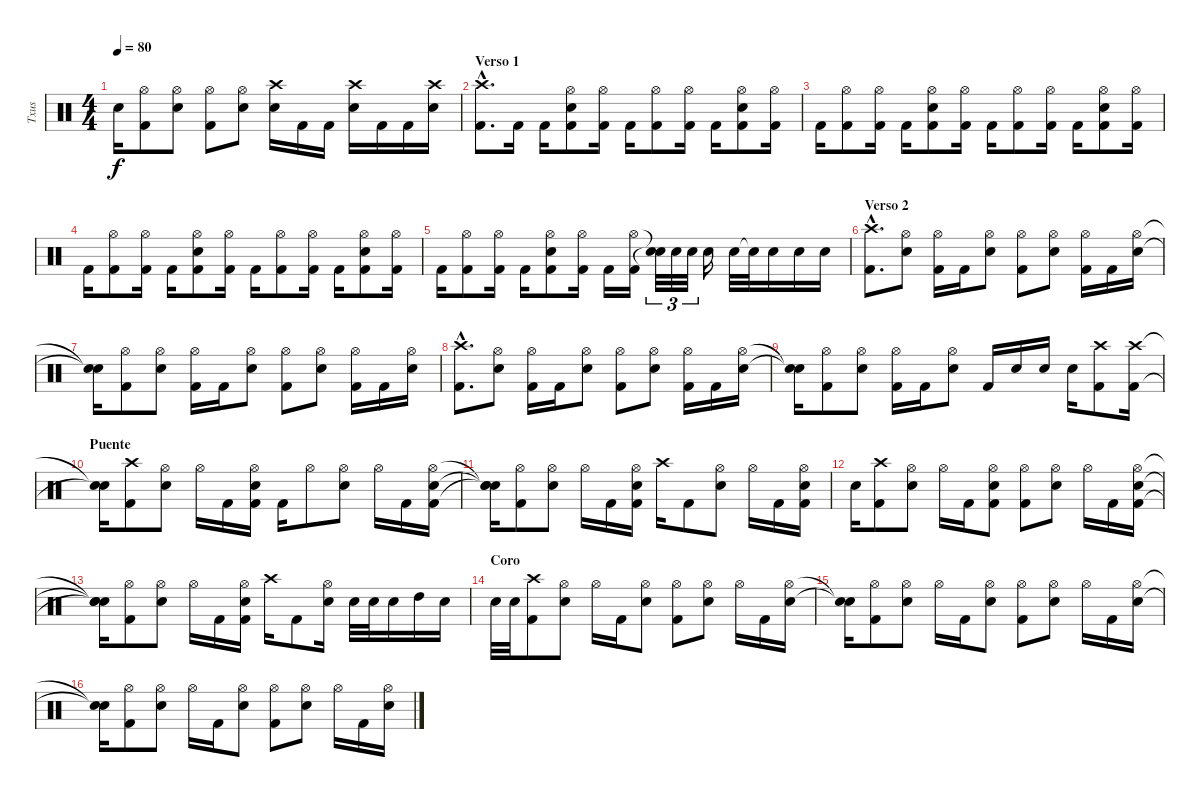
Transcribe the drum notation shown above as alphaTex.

\track ("Txus" "Txus") {instrument percussion}
\staff {score}
\articulation defaults
\ts (4 4)
\tempo 80
\clef neutral
\ks c "Snare (hit)"{t}.16{dy f}
("Hi-Hat (open)" "Kick (hit) 2").8 ("Hi-Hat (open)" "Electric Snare (hit)").8 ("Hi-Hat (open)" "Kick (hit) 2").8 ("Hi-Hat (open)" "Electric Snare (hit)").8 ("Crash high (hit)" "Electric Snare (hit)").16 "Kick (hit) 2".16 "Kick (hit) 2".16 ("Electric Snare (hit)" "Crash high (hit)").16 "Kick (hit) 2".16 "Kick (hit) 2".16 ("Electric Snare (hit)" "Crash high (hit)").16 |
\section ("" "Verso 1")
("Kick (hit) 2"{hac} "Crash high (hit)"{hac}).8{d} "Kick (hit) 2".16 "Kick (hit) 2".16 ("Kick (hit) 2" "Hi-Hat (open)" "Electric Snare (hit)").8 ("Kick (hit) 2" "Hi-Hat (open)").16 "Kick (hit) 2".16 ("Kick (hit) 2" "Hi-Hat (open)").8 ("Kick (hit) 2" "Hi-Hat (open)").16 "Kick (hit) 2".16 ("Kick (hit) 2" "Hi-Hat (open)" "Electric Snare (hit)").8 ("Kick (hit) 2" "Hi-Hat (open)").16 |
"Kick (hit) 2".16 ("Kick (hit) 2" "Hi-Hat (open)").8 ("Kick (hit) 2" "Hi-Hat (open)").16 "Kick (hit) 2".16 ("Kick (hit) 2" "Hi-Hat (open)" "Electric Snare (hit)").8 ("Kick (hit) 2" "Hi-Hat (open)").16 "Kick (hit) 2".16 ("Kick (hit) 2" "Hi-Hat (open)").8 ("Kick (hit) 2" "Hi-Hat (open)").16 "Kick (hit) 2".16 ("Kick (hit) 2" "Hi-Hat (open)" "Electric Snare (hit)").8 ("Kick (hit) 2" "Hi-Hat (open)").16 |
"Kick (hit) 2".16 ("Kick (hit) 2" "Hi-Hat (open)").8 ("Kick (hit) 2" "Hi-Hat (open)").16 "Kick (hit) 2".16 ("Kick (hit) 2" "Hi-Hat (open)" "Electric Snare (hit)").8 ("Kick (hit) 2" "Hi-Hat (open)").16 "Kick (hit) 2".16 ("Kick (hit) 2" "Hi-Hat (open)").8 ("Kick (hit) 2" "Hi-Hat (open)").16 "Kick (hit) 2".16 ("Kick (hit) 2" "Hi-Hat (open)" "Electric Snare (hit)").8 ("Kick (hit) 2" "Hi-Hat (open)").16 |
"Kick (hit) 2".16 ("Kick (hit) 2" "Hi-Hat (open)").8 ("Kick (hit) 2" "Hi-Hat (open)").16 "Kick (hit) 2".16 ("Kick (hit) 2" "Hi-Hat (open)" "Electric Snare (hit)").8 ("Kick (hit) 2" "Hi-Hat (open)").16 "Kick (hit) 2".16 ("Kick (hit) 2" "Hi-Hat (open)").16 ("Electric Snare (hit)"{t} "Snare (hit)"{t}).32{tu (3 2)} "Electric Snare (hit)".32{tu (3 2)} "Electric Snare (hit)".32{tu (3 2)} "Electric Snare (hit)".16 "Electric Snare (hit)".32 "Electric Snare (hit)"{t}.32 "Electric Snare (hit)".16 "Electric Snare (hit)".16 "Electric Snare (hit)".16 |
\section ("" "Verso 2")
("Kick (hit) 2"{hac} "Crash high (hit)"{hac}).8{d} ("Electric Snare (hit)" "Hi-Hat (open)").8 ("Kick (hit) 2" "Hi-Hat (open)").16 "Kick (hit) 2".16 ("Electric Snare (hit)" "Hi-Hat (open)").8 ("Kick (hit) 2" "Hi-Hat (open)").8 ("Electric Snare (hit)" "Hi-Hat (open)").8 ("Kick (hit) 2" "Hi-Hat (open)").16 "Kick (hit) 2".16 ("Electric Snare (hit)" "Hi-Hat (open)").16 |
("Snare (hit)"{t} "Snare (hit)"{t}).16 ("Kick (hit) 2" "Hi-Hat (open)").8 ("Electric Snare (hit)" "Hi-Hat (open)").8 ("Kick (hit) 2" "Hi-Hat (open)").16 "Kick (hit) 2".16 ("Electric Snare (hit)" "Hi-Hat (open)").8 ("Kick (hit) 2" "Hi-Hat (open)").8 ("Electric Snare (hit)" "Hi-Hat (open)").8 ("Kick (hit) 2" "Hi-Hat (open)").16 "Kick (hit) 2".16 ("Electric Snare (hit)" "Hi-Hat (open)").16 |
("Kick (hit) 2"{hac} "Crash high (hit)"{hac}).8{d} ("Electric Snare (hit)" "Hi-Hat (open)").8 ("Kick (hit) 2" "Hi-Hat (open)").16 "Kick (hit) 2".16 ("Electric Snare (hit)" "Hi-Hat (open)").8 ("Kick (hit) 2" "Hi-Hat (open)").8 ("Electric Snare (hit)" "Hi-Hat (open)").8 ("Kick (hit) 2" "Hi-Hat (open)").16 "Kick (hit) 2".16 ("Electric Snare (hit)" "Hi-Hat (open)").16 |
("Snare (hit)"{t} "Snare (hit)"{t}).16 ("Kick (hit) 2" "Hi-Hat (open)").8 ("Electric Snare (hit)" "Hi-Hat (open)").8 ("Kick (hit) 2" "Hi-Hat (open)").16 "Kick (hit) 2".16 ("Electric Snare (hit)" "Hi-Hat (open)").8 "Kick (hit) 2".16 "Electric Snare (hit)".16 "Electric Snare (hit)".16 "Electric Snare (hit)".16 ("Kick (hit) 2" "Crash high (hit)").8 ("Kick (hit) 2" "Crash high (hit)").16 |
\section ("" "Puente")
("Snare (hit)"{t} "Snare (hit)"{t}).16 ("Kick (hit) 2" "Crash high (hit)").8 ("Electric Snare (hit)" "Hi-Hat (open)").8 "Hi-Hat (open)".16 "Kick (hit) 2".16 ("Kick (hit) 2" "Hi-Hat (open)" "Electric Snare (hit)").16 "Kick (hit) 2".16 "Hi-Hat (open)".8 ("Hi-Hat (open)" "Electric Snare (hit)").8 "Hi-Hat (open)".16 "Kick (hit) 2".16 ("Kick (hit) 2" "Hi-Hat (open)" "Electric Snare (hit)").16 |
("Snare (hit)"{t} "Snare (hit)"{t} "Snare (hit)"{t}).16 ("Kick (hit) 2" "Hi-Hat (open)").8 ("Hi-Hat (open)" "Electric Snare (hit)").8 "Hi-Hat (open)".16 "Kick (hit) 2".16 ("Kick (hit) 2" "Hi-Hat (open)" "Electric Snare (hit)").16 "Crash high (hit)".16 "Kick (hit) 2".8 ("Hi-Hat (open)" "Electric Snare (hit)").8 "Hi-Hat (open)".16 "Kick (hit) 2".16 ("Kick (hit) 2" "Hi-Hat (open)" "Electric Snare (hit)").16 |
"Electric Snare (hit)".16 ("Kick (hit) 2" "Crash high (hit)").8 ("Hi-Hat (open)" "Electric Snare (hit)").8 "Hi-Hat (open)".16 "Kick (hit) 2".16 ("Kick (hit) 2" "Hi-Hat (open)" "Electric Snare (hit)").8 ("Kick (hit) 2" "Hi-Hat (open)").8 ("Hi-Hat (open)" "Electric Snare (hit)").8 "Hi-Hat (open)".16 "Kick (hit) 2".16 ("Kick (hit) 2" "Hi-Hat (open)" "Electric Snare (hit)").16 |
("Snare (hit)"{t} "Snare (hit)"{t} "Electric Snare (hit)"{t}).16 ("Kick (hit) 2" "Hi-Hat (open)").8 ("Hi-Hat (open)" "Electric Snare (hit)").8 "Hi-Hat (open)".16 "Kick (hit) 2".16 ("Kick (hit) 2" "Hi-Hat (open)" "Electric Snare (hit)").16 "Crash high (hit)".16 "Kick (hit) 2".8 ("Hi-Hat (open)" "Electric Snare (hit)").16 "Electric Snare (hit)".32 "Electric Snare (hit)".32 "Electric Snare (hit)".16 "High Tom (hit)".16 "Electric Snare (hit)".16 |
\section ("" "Coro")
"Electric Snare (hit)".32 "Electric Snare (hit)".32 ("Kick (hit) 2" "Crash high (hit)").8 ("Electric Snare (hit)" "Hi-Hat (open)").8 "Hi-Hat (open)".16 "Kick (hit) 2".16 ("Electric Snare (hit)" "Hi-Hat (open)").8 ("Kick (hit) 2" "Hi-Hat (open)").8 ("Electric Snare (hit)" "Hi-Hat (open)").8 "Hi-Hat (open)".16 "Kick (hit) 2".16 ("Electric Snare (hit)" "Hi-Hat (open)").16 |
("Snare (hit)"{t} "Snare (hit)"{t}).16 ("Kick (hit) 2" "Hi-Hat (open)").8 ("Electric Snare (hit)" "Hi-Hat (open)").8 "Hi-Hat (open)".16 "Kick (hit) 2".16 ("Electric Snare (hit)" "Hi-Hat (open)").8 ("Kick (hit) 2" "Hi-Hat (open)").8 ("Electric Snare (hit)" "Hi-Hat (open)").8 "Hi-Hat (open)".16 "Kick (hit) 2".16 ("Electric Snare (hit)" "Hi-Hat (open)").16 |
("Snare (hit)"{t} "Snare (hit)"{t}).16 ("Kick (hit) 2" "Hi-Hat (open)").8 ("Electric Snare (hit)" "Hi-Hat (open)").8 "Hi-Hat (open)".16 "Kick (hit) 2".16 ("Electric Snare (hit)" "Hi-Hat (open)").8 ("Kick (hit) 2" "Hi-Hat (open)").8 ("Electric Snare (hit)" "Hi-Hat (open)").8 "Hi-Hat (open)".16 "Kick (hit) 2".16 ("Electric Snare (hit)" "Hi-Hat (open)").16
